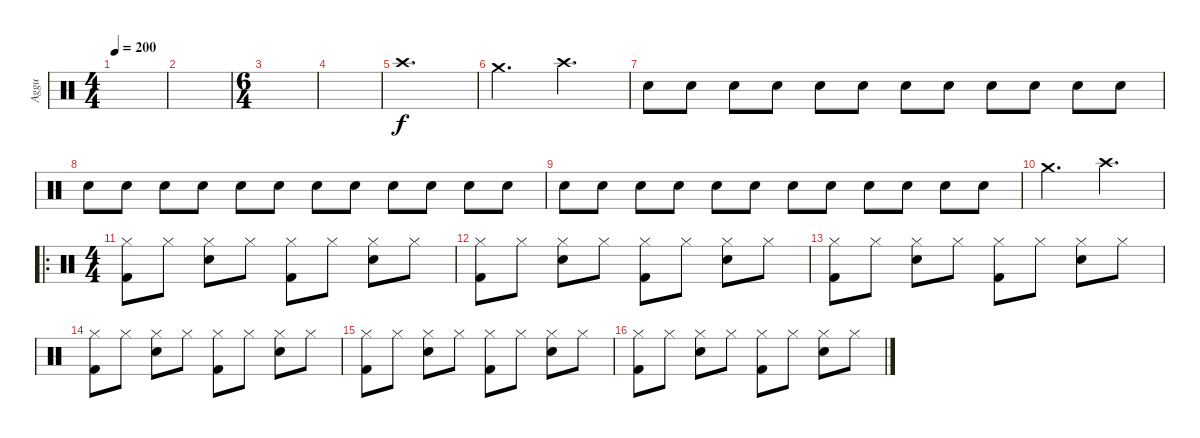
\track ("Aggu" "Aggu") {instrument percussion}
\staff {score}
\articulation defaults
\ts (4 4)
\tempo 200
\clef neutral
\ks c
|
|
\ts (6 4)
|
|
"Crash high (hit)".1{d} |
"Crash medium (hit)".2{d} "Crash high (hit)".2{d} |
"Snare (hit) 2".8 "Snare (hit) 2".8 "Snare (hit) 2".8 "Snare (hit) 2".8 "Snare (hit) 2".8 "Snare (hit) 2".8 "Snare (hit) 2".8 "Snare (hit) 2".8 "Snare (hit) 2".8 "Snare (hit) 2".8 "Snare (hit) 2".8 "Snare (hit) 2".8 |
"Snare (hit) 2".8 "Snare (hit) 2".8 "Snare (hit) 2".8 "Snare (hit) 2".8 "Snare (hit) 2".8 "Snare (hit) 2".8 "Snare (hit) 2".8 "Snare (hit) 2".8 "Snare (hit) 2".8 "Snare (hit) 2".8 "Snare (hit) 2".8 "Snare (hit) 2".8 |
"Snare (hit) 2".8 "Snare (hit) 2".8 "Snare (hit) 2".8 "Snare (hit) 2".8 "Snare (hit) 2".8 "Snare (hit) 2".8 "Snare (hit) 2".8 "Snare (hit) 2".8 "Snare (hit) 2".8 "Snare (hit) 2".8 "Snare (hit) 2".8 "Snare (hit) 2".8 |
"Crash medium (hit)".2{d} "Crash high (hit)".2{d} |
\ro
\ts (4 4)
("Hi-Hat (closed)" "Kick (hit) 2").8 "Hi-Hat (closed)".8 ("Hi-Hat (closed)" "Snare (hit) 2").8 "Hi-Hat (closed)".8 ("Hi-Hat (closed)" "Kick (hit) 2").8 "Hi-Hat (closed)".8 ("Hi-Hat (closed)" "Snare (hit) 2").8 "Hi-Hat (closed)".8 |
("Hi-Hat (closed)" "Kick (hit) 2").8 "Hi-Hat (closed)".8 ("Hi-Hat (closed)" "Snare (hit) 2").8 "Hi-Hat (closed)".8 ("Hi-Hat (closed)" "Kick (hit) 2").8 "Hi-Hat (closed)".8 ("Hi-Hat (closed)" "Snare (hit) 2").8 "Hi-Hat (closed)".8 |
("Hi-Hat (closed)" "Kick (hit) 2").8 "Hi-Hat (closed)".8 ("Hi-Hat (closed)" "Snare (hit) 2").8 "Hi-Hat (closed)".8 ("Hi-Hat (closed)" "Kick (hit) 2").8 "Hi-Hat (closed)".8 ("Hi-Hat (closed)" "Snare (hit) 2").8 "Hi-Hat (closed)".8 |
("Hi-Hat (closed)" "Kick (hit) 2").8 "Hi-Hat (closed)".8 ("Hi-Hat (closed)" "Snare (hit) 2").8 "Hi-Hat (closed)".8 ("Hi-Hat (closed)" "Kick (hit) 2").8 "Hi-Hat (closed)".8 ("Hi-Hat (closed)" "Snare (hit) 2").8 "Hi-Hat (closed)".8 |
("Hi-Hat (closed)" "Kick (hit) 2").8 "Hi-Hat (closed)".8 ("Hi-Hat (closed)" "Snare (hit) 2").8 "Hi-Hat (closed)".8 ("Hi-Hat (closed)" "Kick (hit) 2").8 "Hi-Hat (closed)".8 ("Hi-Hat (closed)" "Snare (hit) 2").8 "Hi-Hat (closed)".8 |
("Hi-Hat (closed)" "Kick (hit) 2").8 "Hi-Hat (closed)".8 ("Hi-Hat (closed)" "Snare (hit) 2").8 "Hi-Hat (closed)".8 ("Hi-Hat (closed)" "Kick (hit) 2").8 "Hi-Hat (closed)".8 ("Hi-Hat (closed)" "Snare (hit) 2").8 "Hi-Hat (closed)".8
